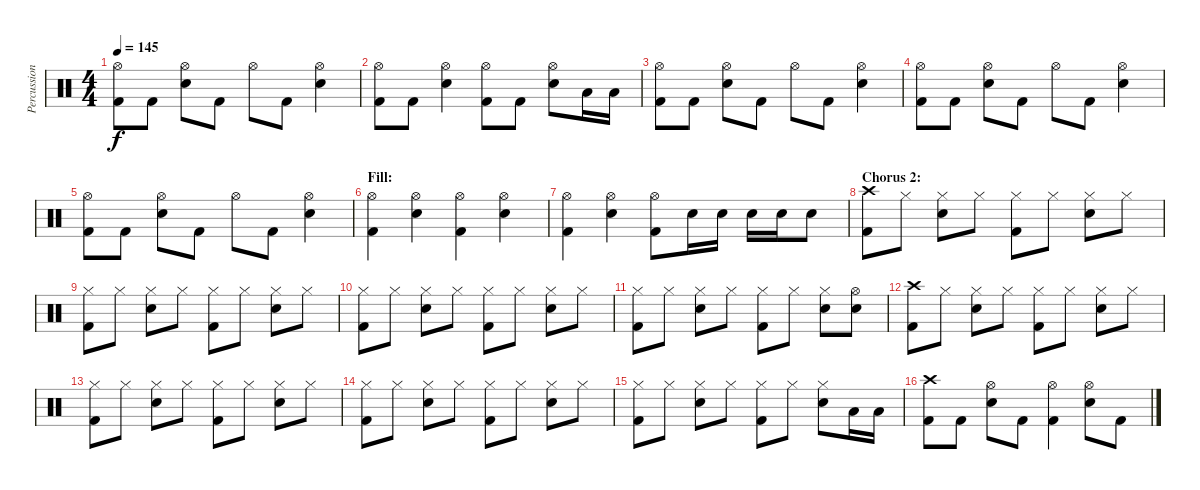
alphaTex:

\track ("Percussion" "Percussion") {instrument percussion}
\staff {score}
\articulation defaults
\ts (4 4)
\tempo 145
\clef neutral
\ks c
("Hi-Hat (open)" "Kick (hit) 2").8{dy f} "Kick (hit) 2".8 ("Hi-Hat (open)" "Snare (hit) 2").8 "Kick (hit) 2".8 "Hi-Hat (open)".8 "Kick (hit) 2".8 ("Hi-Hat (open)" "Snare (hit) 2").4 |
("Hi-Hat (open)" "Kick (hit) 2").8 "Kick (hit) 2".8 ("Hi-Hat (open)" "Snare (hit) 2").4 ("Hi-Hat (open)" "Kick (hit) 2").8 "Kick (hit) 2".8 ("Hi-Hat (open)" "Snare (hit) 2").8 "Low Tom (hit)".16 "Low Tom (hit)".16 |
("Hi-Hat (open)" "Kick (hit) 2").8 "Kick (hit) 2".8 ("Hi-Hat (open)" "Snare (hit) 2").8 "Kick (hit) 2".8 "Hi-Hat (open)".8 "Kick (hit) 2".8 ("Hi-Hat (open)" "Snare (hit) 2").4 |
("Hi-Hat (open)" "Kick (hit) 2").8 "Kick (hit) 2".8 ("Hi-Hat (open)" "Snare (hit) 2").8 "Kick (hit) 2".8 "Hi-Hat (open)".8 "Kick (hit) 2".8 ("Hi-Hat (open)" "Snare (hit) 2").4 |
("Hi-Hat (open)" "Kick (hit) 2").8 "Kick (hit) 2".8 ("Hi-Hat (open)" "Snare (hit) 2").8 "Kick (hit) 2".8 "Hi-Hat (open)".8 "Kick (hit) 2".8 ("Hi-Hat (open)" "Snare (hit) 2").4 |
\section ("" "Fill:")
("Hi-Hat (open)" "Kick (hit) 2").4 ("Hi-Hat (open)" "Snare (hit) 2").4 ("Hi-Hat (open)" "Kick (hit) 2").4 ("Hi-Hat (open)" "Snare (hit) 2").4 |
("Hi-Hat (open)" "Kick (hit) 2").4 ("Hi-Hat (open)" "Snare (hit) 2").4 ("Hi-Hat (open)" "Kick (hit) 2").8 "Snare (hit) 2".16 "Snare (hit) 2".16 "Snare (hit) 2".16 "Snare (hit) 2".16 "Snare (hit) 2".8 |
\section ("" "Chorus 2:")
("Crash high (hit)" "Kick (hit) 2").8 "Hi-Hat (closed)".8 ("Hi-Hat (closed)" "Snare (hit) 2").8 "Hi-Hat (closed)".8 ("Hi-Hat (closed)" "Kick (hit) 2").8 "Hi-Hat (closed)".8 ("Hi-Hat (closed)" "Snare (hit) 2").8 "Hi-Hat (closed)".8 |
("Hi-Hat (closed)" "Kick (hit) 2").8 "Hi-Hat (closed)".8 ("Hi-Hat (closed)" "Snare (hit) 2").8 "Hi-Hat (closed)".8 ("Hi-Hat (closed)" "Kick (hit) 2").8 "Hi-Hat (closed)".8 ("Hi-Hat (closed)" "Snare (hit) 2").8 "Hi-Hat (closed)".8 |
("Hi-Hat (closed)" "Kick (hit) 2").8 "Hi-Hat (closed)".8 ("Hi-Hat (closed)" "Snare (hit) 2").8 "Hi-Hat (closed)".8 ("Hi-Hat (closed)" "Kick (hit) 2").8 "Hi-Hat (closed)".8 ("Hi-Hat (closed)" "Snare (hit) 2").8 "Hi-Hat (closed)".8 |
("Hi-Hat (closed)" "Kick (hit) 2").8 "Hi-Hat (closed)".8 ("Hi-Hat (closed)" "Snare (hit) 2").8 "Hi-Hat (closed)".8 ("Hi-Hat (closed)" "Kick (hit) 2").8 "Hi-Hat (closed)".8 ("Hi-Hat (closed)" "Snare (hit) 2").8 ("Hi-Hat (open)" "Snare (hit) 2").8 |
("Crash high (hit)" "Kick (hit) 2").8 "Hi-Hat (closed)".8 ("Hi-Hat (closed)" "Snare (hit) 2").8 "Hi-Hat (closed)".8 ("Hi-Hat (closed)" "Kick (hit) 2").8 "Hi-Hat (closed)".8 ("Hi-Hat (closed)" "Snare (hit) 2").8 "Hi-Hat (closed)".8 |
("Hi-Hat (closed)" "Kick (hit) 2").8 "Hi-Hat (closed)".8 ("Hi-Hat (closed)" "Snare (hit) 2").8 "Hi-Hat (closed)".8 ("Hi-Hat (closed)" "Kick (hit) 2").8 "Hi-Hat (closed)".8 ("Hi-Hat (closed)" "Snare (hit) 2").8 "Hi-Hat (closed)".8 |
("Hi-Hat (closed)" "Kick (hit) 2").8 "Hi-Hat (closed)".8 ("Hi-Hat (closed)" "Snare (hit) 2").8 "Hi-Hat (closed)".8 ("Hi-Hat (closed)" "Kick (hit) 2").8 "Hi-Hat (closed)".8 ("Hi-Hat (closed)" "Snare (hit) 2").8 "Hi-Hat (closed)".8 |
("Hi-Hat (closed)" "Kick (hit) 2").8 "Hi-Hat (closed)".8 ("Hi-Hat (closed)" "Snare (hit) 2").8 "Hi-Hat (closed)".8 ("Hi-Hat (closed)" "Kick (hit) 2").8 "Hi-Hat (closed)".8 ("Hi-Hat (closed)" "Snare (hit) 2").8 "Low Tom (hit)".16 "Low Tom (hit)".16 |
("Crash high (hit)" "Kick (hit) 2").8 "Kick (hit) 2".8 ("Hi-Hat (open)" "Snare (hit) 2").8 "Kick (hit) 2".8 ("Hi-Hat (open)" "Kick (hit) 2").4 ("Hi-Hat (open)" "Snare (hit) 2").8 "Kick (hit) 2".8
